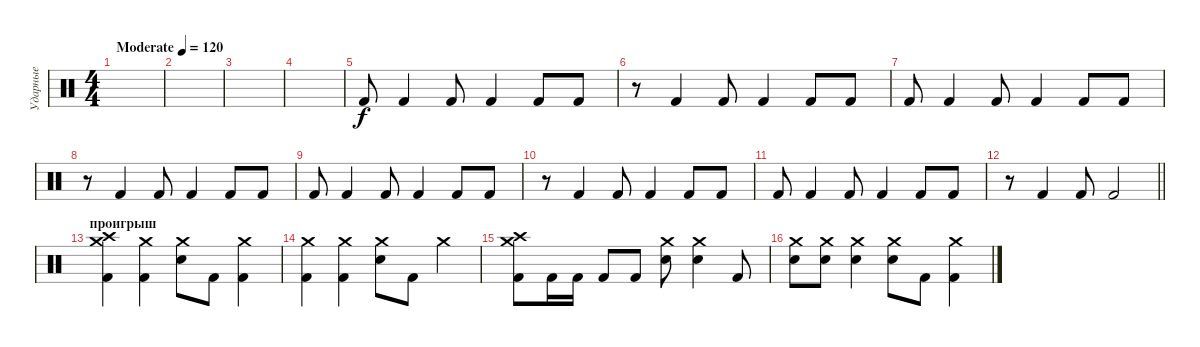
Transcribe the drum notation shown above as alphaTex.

\track ("Ударные" "Ударные") {instrument percussion}
\staff {score}
\articulation defaults
\ts (4 4)
\tempo (120 "Moderate")
\clef neutral
\ks c
|
|
|
|
"Kick (hit) 2".8 "Kick (hit) 2".4 "Kick (hit) 2".8 "Kick (hit) 2".4 "Kick (hit) 2".8 "Kick (hit) 2".8 |
r.8 "Kick (hit) 2".4 "Kick (hit) 2".8 "Kick (hit) 2".4 "Kick (hit) 2".8 "Kick (hit) 2".8 |
"Kick (hit) 2".8 "Kick (hit) 2".4 "Kick (hit) 2".8 "Kick (hit) 2".4 "Kick (hit) 2".8 "Kick (hit) 2".8 |
r.8 "Kick (hit) 2".4 "Kick (hit) 2".8 "Kick (hit) 2".4 "Kick (hit) 2".8 "Kick (hit) 2".8 |
"Kick (hit) 2".8 "Kick (hit) 2".4 "Kick (hit) 2".8 "Kick (hit) 2".4 "Kick (hit) 2".8 "Kick (hit) 2".8 |
r.8 "Kick (hit) 2".4 "Kick (hit) 2".8 "Kick (hit) 2".4 "Kick (hit) 2".8 "Kick (hit) 2".8 |
"Kick (hit) 2".8 "Kick (hit) 2".4 "Kick (hit) 2".8 "Kick (hit) 2".4 "Kick (hit) 2".8 "Kick (hit) 2".8 |
\barLineRight lightlight
r.8 "Kick (hit) 2".4 "Kick (hit) 2".8 "Kick (hit) 2".2 |
\section ("" "проигрыш")
("Crash medium (hit)" "Crash high (hit)" "Kick (hit) 2").4 ("Crash medium (hit)" "Kick (hit) 2").4 ("Crash medium (hit)" "Snare (hit) 2").8 "Kick (hit) 2".8 ("Crash medium (hit)" "Kick (hit) 2").4 |
("Crash medium (hit)" "Kick (hit) 2").4 ("Crash medium (hit)" "Kick (hit) 2").4 ("Crash medium (hit)" "Snare (hit) 2").8 "Kick (hit) 2".8 "Crash medium (hit)".4 |
("Crash medium (hit)" "Crash high (hit)" "Kick (hit) 2").8 "Kick (hit) 2".16 "Kick (hit) 2".16 "Kick (hit) 2".8 "Kick (hit) 2".8 ("Crash medium (hit)" "Snare (hit) 2").8 ("Crash medium (hit)" "Snare (hit) 2").4 "Kick (hit) 2".8 |
("Crash medium (hit)" "Snare (hit) 2").8 ("Crash medium (hit)" "Snare (hit) 2").8 ("Crash medium (hit)" "Snare (hit) 2").4 ("Crash medium (hit)" "Snare (hit) 2").8 "Kick (hit) 2".8 ("Crash medium (hit)" "Kick (hit) 2").4
